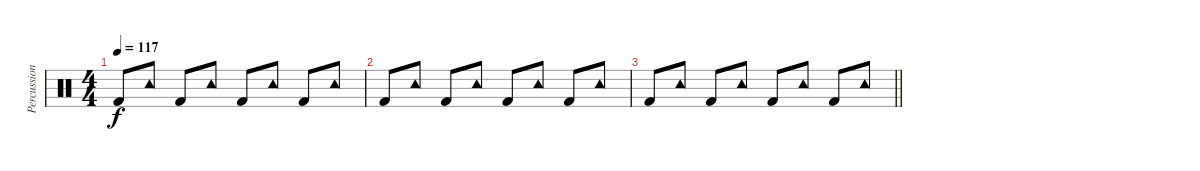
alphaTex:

\track ("Percussion" "Percussion") {instrument percussion}
\staff {score}
\articulation defaults
\ts (4 4)
\tempo 117
\clef neutral
\ks c "Kick (hit) 2".8{dy f} "Tambourine (hit)".8 "Kick (hit) 2".8 "Tambourine (hit)".8 "Kick (hit) 2".8 "Tambourine (hit)".8 "Kick (hit) 2".8 "Tambourine (hit)".8
|
"Kick (hit) 2".8 "Tambourine (hit)".8 "Kick (hit) 2".8 "Tambourine (hit)".8 "Kick (hit) 2".8 "Tambourine (hit)".8 "Kick (hit) 2".8 "Tambourine (hit)".8 |
\barLineRight lightlight "Kick (hit) 2".8 "Tambourine (hit)".8 "Kick (hit) 2".8 "Tambourine (hit)".8 "Kick (hit) 2".8 "Tambourine (hit)".8 "Kick (hit) 2".8 "Tambourine (hit)".8
